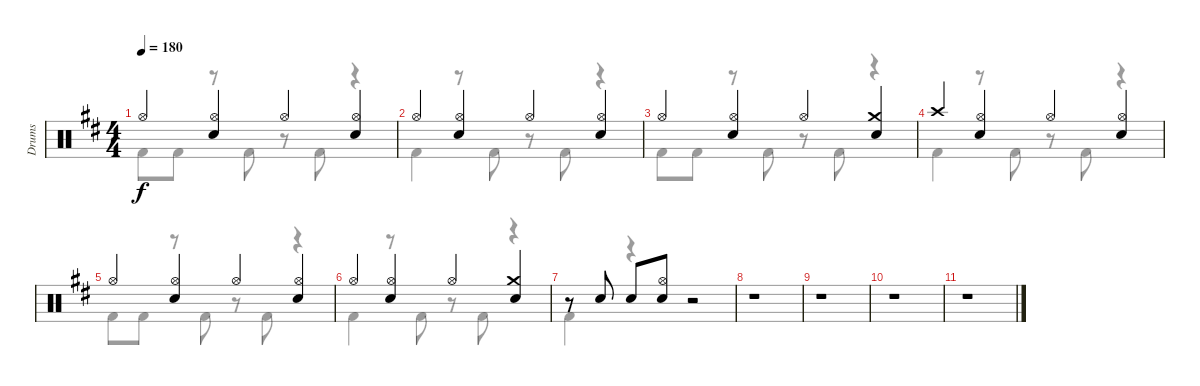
\track ("Drums" "Drums") {instrument percussion}
\staff {score}
\articulation defaults
\voice
\ts (4 4)
\tempo 180
\clef neutral
\ks d "Hi-Hat (open)".4{dy f}
("Hi-Hat (open)" "Snare (hit) 2").4 "Hi-Hat (open)".4 ("Hi-Hat (open)" "Snare (hit) 2").4 |
"Hi-Hat (open)".4 ("Hi-Hat (open)" "Snare (hit) 2").4 "Hi-Hat (open)".4 ("Hi-Hat (open)" "Snare (hit) 2").4 |
"Hi-Hat (open)".4 ("Hi-Hat (open)" "Snare (hit) 2").4 "Hi-Hat (open)".4 ("Crash medium (hit)" "Snare (hit) 2").4 |
"Crash high (hit)".4 ("Hi-Hat (open)" "Snare (hit) 2").4 "Hi-Hat (open)".4 ("Hi-Hat (open)" "Snare (hit) 2").4 |
"Hi-Hat (open)".4 ("Hi-Hat (open)" "Snare (hit) 2").4 "Hi-Hat (open)".4 ("Hi-Hat (open)" "Snare (hit) 2").4 |
"Hi-Hat (open)".4 ("Hi-Hat (open)" "Snare (hit) 2").4 "Hi-Hat (open)".4 ("Crash medium (hit)" "Snare (hit) 2").4 |
r.8 "Snare (hit) 2".8 "Snare (hit) 2".8 ("Hi-Hat (open)" "Snare (hit) 2").8 r.2 |
r.1 |
r.1 |
r.1 |
r.1
\voice
\clef neutral
\ottava regular
\simile none
\ks d "Kick (hit) 2".8{dy f} "Kick (hit) 2".8
r.8 "Kick (hit) 2".8 r.8 "Kick (hit) 2".8 r.4 |
"Kick (hit) 2".4 r.8 "Kick (hit) 2".8 r.8 "Kick (hit) 2".8 r.4 |
"Kick (hit) 2".8 "Kick (hit) 2".8 r.8 "Kick (hit) 2".8 r.8 "Kick (hit) 2".8 r.4 |
"Kick (hit) 2".4 r.8 "Kick (hit) 2".8 r.8 "Kick (hit) 2".8 r.4 |
"Kick (hit) 2".8 "Kick (hit) 2".8 r.8 "Kick (hit) 2".8 r.8 "Kick (hit) 2".8 r.4 |
"Kick (hit) 2".4 r.8 "Kick (hit) 2".8 r.8 "Kick (hit) 2".8 r.4 |
"Kick (hit) 2".4 r.4 r.2 |
r.1 |
r.1 |
r.1 |
r.1
